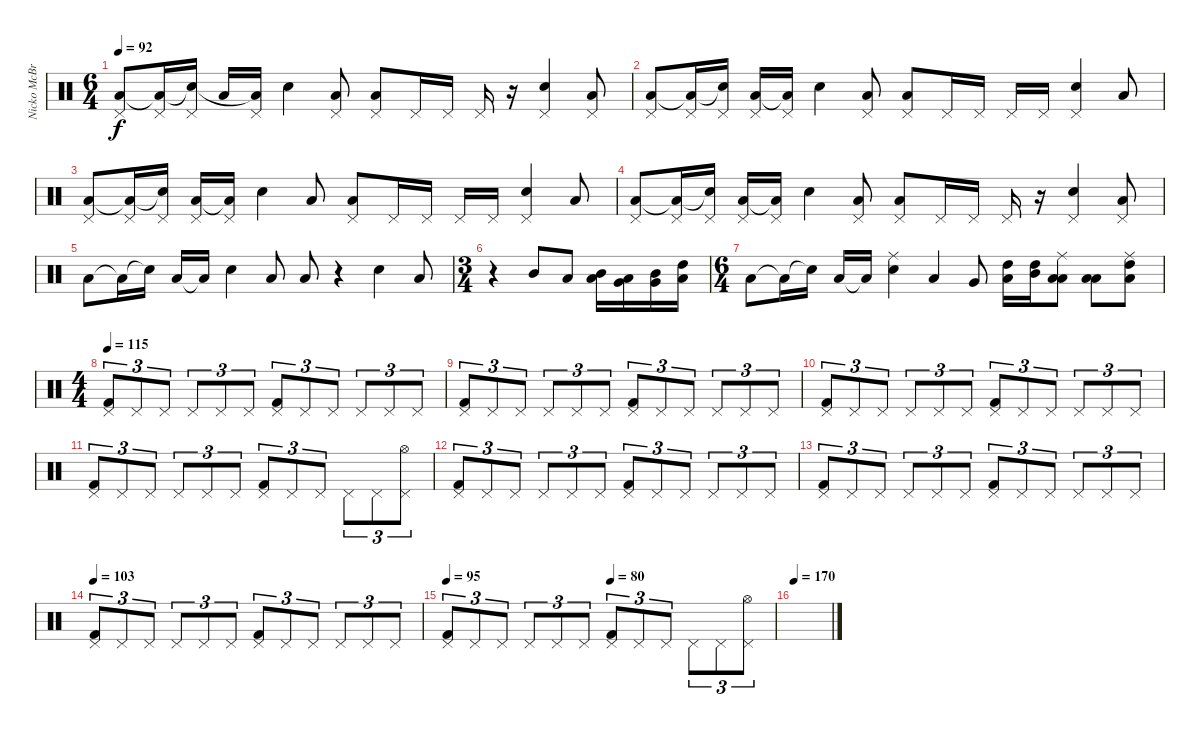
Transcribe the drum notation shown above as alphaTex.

\track ("Nicko McBrain" "Nicko McBr") {instrument percussion}
\staff {score}
\articulation defaults
\ts (6 4)
\tempo 92
\clef neutral
\ks c
("Pedal Hi-Hat (hit)" "Low Floor Tom (hit)").8{dy f} ("Pedal Hi-Hat (hit)" "Low Floor Tom (hit)"{t}).16 ("Pedal Hi-Hat (hit)" "Electric Snare (hit)"{t}).16 "Low Floor Tom (hit)".16 ("Pedal Hi-Hat (hit)" "Low Floor Tom (hit)"{t}).16 "Electric Snare (hit)".4 ("Pedal Hi-Hat (hit)" "Low Floor Tom (hit)").8 ("Pedal Hi-Hat (hit)" "Low Floor Tom (hit)").8 "Pedal Hi-Hat (hit)".16 "Pedal Hi-Hat (hit)".16 "Pedal Hi-Hat (hit)".16 r.16 ("Pedal Hi-Hat (hit)" "Electric Snare (hit)").4 ("Pedal Hi-Hat (hit)" "Low Floor Tom (hit)").8 |
("Pedal Hi-Hat (hit)" "Low Floor Tom (hit)").8 ("Pedal Hi-Hat (hit)" "Low Floor Tom (hit)"{t}).16 ("Pedal Hi-Hat (hit)" "Electric Snare (hit)"{t}).16 ("Pedal Hi-Hat (hit)" "Low Floor Tom (hit)").16 ("Pedal Hi-Hat (hit)" "Low Floor Tom (hit)"{t}).16 "Electric Snare (hit)".4 ("Pedal Hi-Hat (hit)" "Low Floor Tom (hit)").8 ("Pedal Hi-Hat (hit)" "Low Floor Tom (hit)").8 "Pedal Hi-Hat (hit)".16 "Pedal Hi-Hat (hit)".16 "Pedal Hi-Hat (hit)".16 "Pedal Hi-Hat (hit)".16 ("Pedal Hi-Hat (hit)" "Electric Snare (hit)").4 "Low Floor Tom (hit)".8 |
("Pedal Hi-Hat (hit)" "Low Floor Tom (hit)").8 ("Pedal Hi-Hat (hit)" "Low Floor Tom (hit)"{t}).16 ("Pedal Hi-Hat (hit)" "Electric Snare (hit)"{t}).16 ("Pedal Hi-Hat (hit)" "Low Floor Tom (hit)").16 ("Pedal Hi-Hat (hit)" "Low Floor Tom (hit)"{t}).16 "Electric Snare (hit)".4 "Low Floor Tom (hit)".8 ("Pedal Hi-Hat (hit)" "Low Floor Tom (hit)").8 "Pedal Hi-Hat (hit)".16 "Pedal Hi-Hat (hit)".16 "Pedal Hi-Hat (hit)".16 "Pedal Hi-Hat (hit)".16 ("Pedal Hi-Hat (hit)" "Electric Snare (hit)").4 "Low Floor Tom (hit)".8 |
("Pedal Hi-Hat (hit)" "Low Floor Tom (hit)").8 ("Pedal Hi-Hat (hit)" "Low Floor Tom (hit)"{t}).16 ("Pedal Hi-Hat (hit)" "Electric Snare (hit)"{t}).16 ("Pedal Hi-Hat (hit)" "Low Floor Tom (hit)").16 ("Pedal Hi-Hat (hit)" "Low Floor Tom (hit)"{t}).16 "Electric Snare (hit)".4 ("Pedal Hi-Hat (hit)" "Low Floor Tom (hit)").8 ("Pedal Hi-Hat (hit)" "Low Floor Tom (hit)").8 "Pedal Hi-Hat (hit)".16 "Pedal Hi-Hat (hit)".16 "Pedal Hi-Hat (hit)".16 r.16 ("Pedal Hi-Hat (hit)" "Electric Snare (hit)").4 ("Pedal Hi-Hat (hit)" "Low Floor Tom (hit)").8 |
"Low Floor Tom (hit)".8 "Low Floor Tom (hit)"{t}.16 "Electric Snare (hit)"{t}.16 "Low Floor Tom (hit)".16 "Low Floor Tom (hit)"{t}.16 "Electric Snare (hit)".4 "Low Floor Tom (hit)".8 "Low Floor Tom (hit)".8 r.4 "Electric Snare (hit)".4 "Low Floor Tom (hit)".8 |
\ts (3 4)
r.4 "Mid Tom (hit)".8 "Low Tom (hit)".8 ("Mid Tom (hit)" "Low Tom (hit)").16 ("Low Tom (hit)" "Very Low Tom (hit)").16 ("Very Low Tom (hit)" "Mid Tom (hit)").16 ("High Tom (hit)" "Low Floor Tom (hit)").16 |
\ts (6 4)
"Low Floor Tom (hit)".8 "Low Floor Tom (hit)"{t}.16 "Electric Snare (hit)"{t}.16 "Low Floor Tom (hit)".16 "Low Floor Tom (hit)"{t}.16 ("Ride (middle)" "Electric Snare (hit)").4 "Low Floor Tom (hit)".4 "Very Low Tom (hit)".8 ("High Tom (hit)" "Low Floor Tom (hit)").16 ("High Tom (hit)" "Mid Tom (hit)").16 ("Low Tom (hit)" "Low Tom (hit)" "Ride (middle)").8 ("Low Floor Tom (hit)" "Low Tom (hit)").8 ("High Tom (hit)" "Low Tom (hit)" "Ride (middle)").8 |
\ts (4 4)
\tempo 115
("Pedal Hi-Hat (hit)" "Kick (hit) 2").8{tu (3 2)} "Pedal Hi-Hat (hit)".8{tu (3 2)} "Pedal Hi-Hat (hit)".8{tu (3 2)} "Pedal Hi-Hat (hit)".8{tu (3 2)} "Pedal Hi-Hat (hit)".8{tu (3 2)} "Pedal Hi-Hat (hit)".8{tu (3 2)} ("Pedal Hi-Hat (hit)" "Kick (hit) 2").8{tu (3 2)} "Pedal Hi-Hat (hit)".8{tu (3 2)} "Pedal Hi-Hat (hit)".8{tu (3 2)} "Pedal Hi-Hat (hit)".8{tu (3 2)} "Pedal Hi-Hat (hit)".8{tu (3 2)} "Pedal Hi-Hat (hit)".8{tu (3 2)} |
("Pedal Hi-Hat (hit)" "Kick (hit) 2").8{tu (3 2)} "Pedal Hi-Hat (hit)".8{tu (3 2)} "Pedal Hi-Hat (hit)".8{tu (3 2)} "Pedal Hi-Hat (hit)".8{tu (3 2)} "Pedal Hi-Hat (hit)".8{tu (3 2)} "Pedal Hi-Hat (hit)".8{tu (3 2)} ("Pedal Hi-Hat (hit)" "Kick (hit) 2").8{tu (3 2)} "Pedal Hi-Hat (hit)".8{tu (3 2)} "Pedal Hi-Hat (hit)".8{tu (3 2)} "Pedal Hi-Hat (hit)".8{tu (3 2)} "Pedal Hi-Hat (hit)".8{tu (3 2)} "Pedal Hi-Hat (hit)".8{tu (3 2)} |
("Pedal Hi-Hat (hit)" "Kick (hit) 2").8{tu (3 2)} "Pedal Hi-Hat (hit)".8{tu (3 2)} "Pedal Hi-Hat (hit)".8{tu (3 2)} "Pedal Hi-Hat (hit)".8{tu (3 2)} "Pedal Hi-Hat (hit)".8{tu (3 2)} "Pedal Hi-Hat (hit)".8{tu (3 2)} ("Pedal Hi-Hat (hit)" "Kick (hit) 2").8{tu (3 2)} "Pedal Hi-Hat (hit)".8{tu (3 2)} "Pedal Hi-Hat (hit)".8{tu (3 2)} "Pedal Hi-Hat (hit)".8{tu (3 2)} "Pedal Hi-Hat (hit)".8{tu (3 2)} "Pedal Hi-Hat (hit)".8{tu (3 2)} |
("Pedal Hi-Hat (hit)" "Kick (hit) 2").8{tu (3 2)} "Pedal Hi-Hat (hit)".8{tu (3 2)} "Pedal Hi-Hat (hit)".8{tu (3 2)} "Pedal Hi-Hat (hit)".8{tu (3 2)} "Pedal Hi-Hat (hit)".8{tu (3 2)} "Pedal Hi-Hat (hit)".8{tu (3 2)} ("Pedal Hi-Hat (hit)" "Kick (hit) 2").8{tu (3 2)} "Pedal Hi-Hat (hit)".8{tu (3 2)} "Pedal Hi-Hat (hit)".8{tu (3 2)} "Pedal Hi-Hat (hit)".8{tu (3 2)} "Pedal Hi-Hat (hit)".8{tu (3 2)} ("Pedal Hi-Hat (hit)" "Hi-Hat (open)").8{tu (3 2)} |
("Pedal Hi-Hat (hit)" "Kick (hit) 2").8{tu (3 2)} "Pedal Hi-Hat (hit)".8{tu (3 2)} "Pedal Hi-Hat (hit)".8{tu (3 2)} "Pedal Hi-Hat (hit)".8{tu (3 2)} "Pedal Hi-Hat (hit)".8{tu (3 2)} "Pedal Hi-Hat (hit)".8{tu (3 2)} ("Pedal Hi-Hat (hit)" "Kick (hit) 2").8{tu (3 2)} "Pedal Hi-Hat (hit)".8{tu (3 2)} "Pedal Hi-Hat (hit)".8{tu (3 2)} "Pedal Hi-Hat (hit)".8{tu (3 2)} "Pedal Hi-Hat (hit)".8{tu (3 2)} "Pedal Hi-Hat (hit)".8{tu (3 2)} |
("Pedal Hi-Hat (hit)" "Kick (hit) 2").8{tu (3 2)} "Pedal Hi-Hat (hit)".8{tu (3 2)} "Pedal Hi-Hat (hit)".8{tu (3 2)} "Pedal Hi-Hat (hit)".8{tu (3 2)} "Pedal Hi-Hat (hit)".8{tu (3 2)} "Pedal Hi-Hat (hit)".8{tu (3 2)} ("Pedal Hi-Hat (hit)" "Kick (hit) 2").8{tu (3 2)} "Pedal Hi-Hat (hit)".8{tu (3 2)} "Pedal Hi-Hat (hit)".8{tu (3 2)} "Pedal Hi-Hat (hit)".8{tu (3 2)} "Pedal Hi-Hat (hit)".8{tu (3 2)} "Pedal Hi-Hat (hit)".8{tu (3 2)} |
\tempo 103
("Pedal Hi-Hat (hit)" "Kick (hit) 2").8{tu (3 2)} "Pedal Hi-Hat (hit)".8{tu (3 2)} "Pedal Hi-Hat (hit)".8{tu (3 2)} "Pedal Hi-Hat (hit)".8{tu (3 2)} "Pedal Hi-Hat (hit)".8{tu (3 2)} "Pedal Hi-Hat (hit)".8{tu (3 2)} ("Pedal Hi-Hat (hit)" "Kick (hit) 2").8{tu (3 2)} "Pedal Hi-Hat (hit)".8{tu (3 2)} "Pedal Hi-Hat (hit)".8{tu (3 2)} "Pedal Hi-Hat (hit)".8{tu (3 2)} "Pedal Hi-Hat (hit)".8{tu (3 2)} "Pedal Hi-Hat (hit)".8{tu (3 2)} |
\tempo 95
\tempo (80 0.5)
("Pedal Hi-Hat (hit)" "Kick (hit) 2").8{tu (3 2)} "Pedal Hi-Hat (hit)".8{tu (3 2)} "Pedal Hi-Hat (hit)".8{tu (3 2)} "Pedal Hi-Hat (hit)".8{tu (3 2)} "Pedal Hi-Hat (hit)".8{tu (3 2)} "Pedal Hi-Hat (hit)".8{tu (3 2)} ("Pedal Hi-Hat (hit)" "Kick (hit) 2").8{tu (3 2)} "Pedal Hi-Hat (hit)".8{tu (3 2)} "Pedal Hi-Hat (hit)".8{tu (3 2)} "Pedal Hi-Hat (hit)".8{tu (3 2)} "Pedal Hi-Hat (hit)".8{tu (3 2)} ("Pedal Hi-Hat (hit)" "Hi-Hat (open)").8{tu (3 2)} |
\tempo 170
